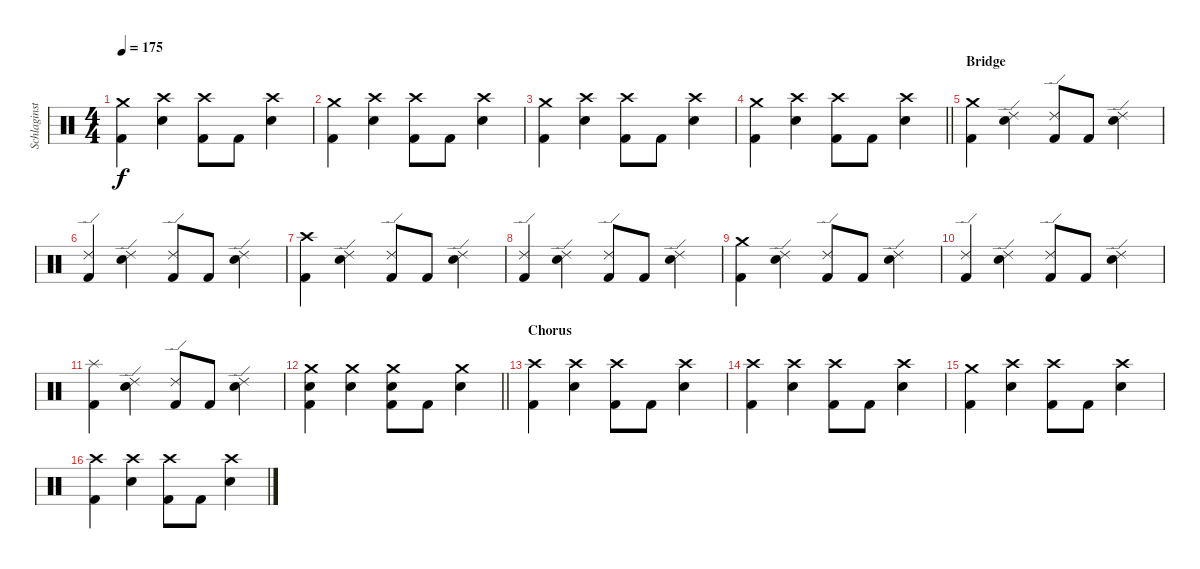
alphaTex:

\track ("Schlaginstrumente - Auswahl" "Schlaginst") {instrument percussion}
\staff {score}
\articulation defaults
\ts (4 4)
\tempo 175
\clef neutral
\ks c
("Crash medium (hit)" "Kick (hit) 2").4{dy f} ("Crash high (hit)" "Snare (hit) 2").4 ("Crash high (hit)" "Kick (hit) 2").8 "Kick (hit) 2".8 ("Crash high (hit)" "Snare (hit) 2").4 |
("Crash medium (hit)" "Kick (hit) 2").4 ("Crash high (hit)" "Snare (hit) 2").4 ("Crash high (hit)" "Kick (hit) 2").8 "Kick (hit) 2".8 ("Crash high (hit)" "Snare (hit) 2").4 |
("Crash medium (hit)" "Kick (hit) 2").4 ("Crash high (hit)" "Snare (hit) 2").4 ("Crash high (hit)" "Kick (hit) 2").8 "Kick (hit) 2".8 ("Crash high (hit)" "Snare (hit) 2").4 |
\barLineRight lightlight
("Crash medium (hit)" "Kick (hit) 2").4 ("Crash high (hit)" "Snare (hit) 2").4 ("Crash high (hit)" "Kick (hit) 2").8 "Kick (hit) 2".8 ("Crash high (hit)" "Snare (hit) 2").4 |
\section ("" "Bridge")
("Crash medium (hit)" "Kick (hit) 2").4 ("Ride (edge) 2" "Snare (hit) 2").4 ("Ride (edge) 2" "Kick (hit) 2").8 "Kick (hit) 2".8 ("Ride (edge) 2" "Snare (hit) 2").4 |
("Ride (edge) 2" "Kick (hit) 2").4 ("Ride (edge) 2" "Snare (hit) 2").4 ("Ride (edge) 2" "Kick (hit) 2").8 "Kick (hit) 2".8 ("Ride (edge) 2" "Snare (hit) 2").4 |
("Crash high (hit)" "Kick (hit) 2").4 ("Ride (edge) 2" "Snare (hit) 2").4 ("Ride (edge) 2" "Kick (hit) 2").8 "Kick (hit) 2".8 ("Ride (edge) 2" "Snare (hit) 2").4 |
("Ride (edge) 2" "Kick (hit) 2").4 ("Ride (edge) 2" "Snare (hit) 2").4 ("Ride (edge) 2" "Kick (hit) 2").8 "Kick (hit) 2".8 ("Ride (edge) 2" "Snare (hit) 2").4 |
("Crash medium (hit)" "Kick (hit) 2").4 ("Ride (edge) 2" "Snare (hit) 2").4 ("Ride (edge) 2" "Kick (hit) 2").8 "Kick (hit) 2".8 ("Ride (edge) 2" "Snare (hit) 2").4 |
("Ride (edge) 2" "Kick (hit) 2").4 ("Ride (edge) 2" "Snare (hit) 2").4 ("Ride (edge) 2" "Kick (hit) 2").8 "Kick (hit) 2".8 ("Ride (edge) 2" "Snare (hit) 2").4 |
("Splash (hit)" "Kick (hit) 2").4 ("Ride (edge) 2" "Snare (hit) 2").4 ("Ride (edge) 2" "Kick (hit) 2").8 "Kick (hit) 2".8 ("Ride (edge) 2" "Snare (hit) 2").4 |
\barLineRight lightlight
("Crash medium (hit)" "Snare (hit) 2" "Kick (hit) 2").4 ("Crash medium (hit)" "Snare (hit) 2").4 ("Crash medium (hit)" "Snare (hit) 2" "Kick (hit) 2").8 "Kick (hit) 2".8 ("Crash medium (hit)" "Snare (hit) 2").4 |
\section ("" "Chorus")
("Crash high (hit)" "Kick (hit) 2").4 ("Crash high (hit)" "Snare (hit) 2").4 ("Crash high (hit)" "Kick (hit) 2").8 "Kick (hit) 2".8 ("Crash high (hit)" "Snare (hit) 2").4 |
("Crash high (hit)" "Kick (hit) 2").4 ("Crash high (hit)" "Snare (hit) 2").4 ("Crash high (hit)" "Kick (hit) 2").8 "Kick (hit) 2".8 ("Crash high (hit)" "Snare (hit) 2").4 |
("Crash medium (hit)" "Kick (hit) 2").4 ("Crash high (hit)" "Snare (hit) 2").4 ("Crash high (hit)" "Kick (hit) 2").8 "Kick (hit) 2".8 ("Crash high (hit)" "Snare (hit) 2").4 |
("Crash high (hit)" "Kick (hit) 2").4 ("Crash high (hit)" "Snare (hit) 2").4 ("Crash high (hit)" "Kick (hit) 2").8 "Kick (hit) 2".8 ("Crash high (hit)" "Snare (hit) 2").4
